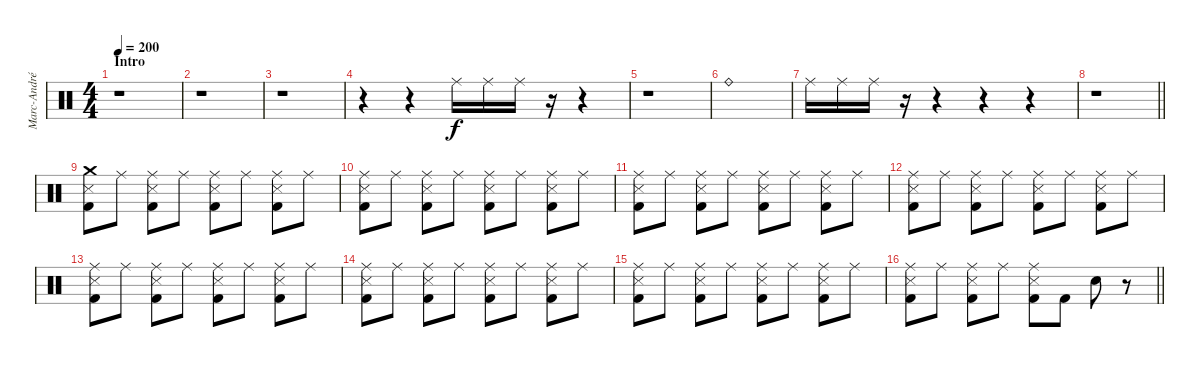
\track ("Marc-André Barabé" "Marc-André") {instrument percussion}
\staff {score}
\articulation defaults
\ts (4 4)
\section ("" "Intro")
\tempo 200
\tempo 190
\tempo 200
\clef neutral
\ks c
r.1{dy f} |
r.1 |
r.1 |
r.4 r.4 "Ride (middle)".16 "Ride (middle)".16 "Ride (middle)".16 r.16 r.4 |
r.1 |
"Ride (bell)".1 |
"Ride (middle)".16 "Ride (middle)".16 "Ride (middle)".16 r.16 r.4 r.4 r.4 |
\barLineRight lightlight
r.1 |
("Crash medium (hit)" "Snare (side stick) 3" "Kick (hit) 2").8 "Ride (middle)".8 ("Ride (middle)" "Snare (side stick) 3" "Kick (hit) 2").8 "Ride (middle)".8 ("Ride (middle)" "Snare (side stick) 3" "Kick (hit) 2").8 "Ride (middle)".8 ("Ride (middle)" "Snare (side stick) 3" "Kick (hit) 2").8 "Ride (middle)".8 |
("Ride (middle)" "Snare (side stick) 3" "Kick (hit) 2").8 "Ride (middle)".8 ("Ride (middle)" "Snare (side stick) 3" "Kick (hit) 2").8 "Ride (middle)".8 ("Ride (middle)" "Snare (side stick) 3" "Kick (hit) 2").8 "Ride (middle)".8 ("Ride (middle)" "Snare (side stick) 3" "Kick (hit) 2").8 "Ride (middle)".8 |
("Ride (middle)" "Snare (side stick) 3" "Kick (hit) 2").8 "Ride (middle)".8 ("Ride (middle)" "Snare (side stick) 3" "Kick (hit) 2").8 "Ride (middle)".8 ("Ride (middle)" "Snare (side stick) 3" "Kick (hit) 2").8 "Ride (middle)".8 ("Ride (middle)" "Snare (side stick) 3" "Kick (hit) 2").8 "Ride (middle)".8 |
("Ride (middle)" "Snare (side stick) 3" "Kick (hit) 2").8 "Ride (middle)".8 ("Ride (middle)" "Snare (side stick) 3" "Kick (hit) 2").8 "Ride (middle)".8 ("Ride (middle)" "Snare (side stick) 3" "Kick (hit) 2").8 "Ride (middle)".8 ("Ride (middle)" "Snare (side stick) 3" "Kick (hit) 2").8 "Ride (middle)".8 |
("Ride (middle)" "Snare (side stick) 3" "Kick (hit) 2").8 "Ride (middle)".8 ("Ride (middle)" "Snare (side stick) 3" "Kick (hit) 2").8 "Ride (middle)".8 ("Ride (middle)" "Snare (side stick) 3" "Kick (hit) 2").8 "Ride (middle)".8 ("Ride (middle)" "Snare (side stick) 3" "Kick (hit) 2").8 "Ride (middle)".8 |
("Ride (middle)" "Snare (side stick) 3" "Kick (hit) 2").8 "Ride (middle)".8 ("Ride (middle)" "Snare (side stick) 3" "Kick (hit) 2").8 "Ride (middle)".8 ("Ride (middle)" "Snare (side stick) 3" "Kick (hit) 2").8 "Ride (middle)".8 ("Ride (middle)" "Snare (side stick) 3" "Kick (hit) 2").8 "Ride (middle)".8 |
("Ride (middle)" "Snare (side stick) 3" "Kick (hit) 2").8 "Ride (middle)".8 ("Ride (middle)" "Snare (side stick) 3" "Kick (hit) 2").8 "Ride (middle)".8 ("Ride (middle)" "Snare (side stick) 3" "Kick (hit) 2").8 "Ride (middle)".8 ("Ride (middle)" "Snare (side stick) 3" "Kick (hit) 2").8 "Ride (middle)".8 |
\barLineRight lightlight
("Ride (middle)" "Snare (side stick) 3" "Kick (hit) 2").8 "Ride (middle)".8 ("Ride (middle)" "Snare (side stick) 3" "Kick (hit) 2").8 "Ride (middle)".8 ("Ride (middle)" "Snare (side stick) 3" "Kick (hit) 2").8 "Kick (hit) 2"{tr (4 32)}.8 "Electric Snare (hit)".8 r.8
